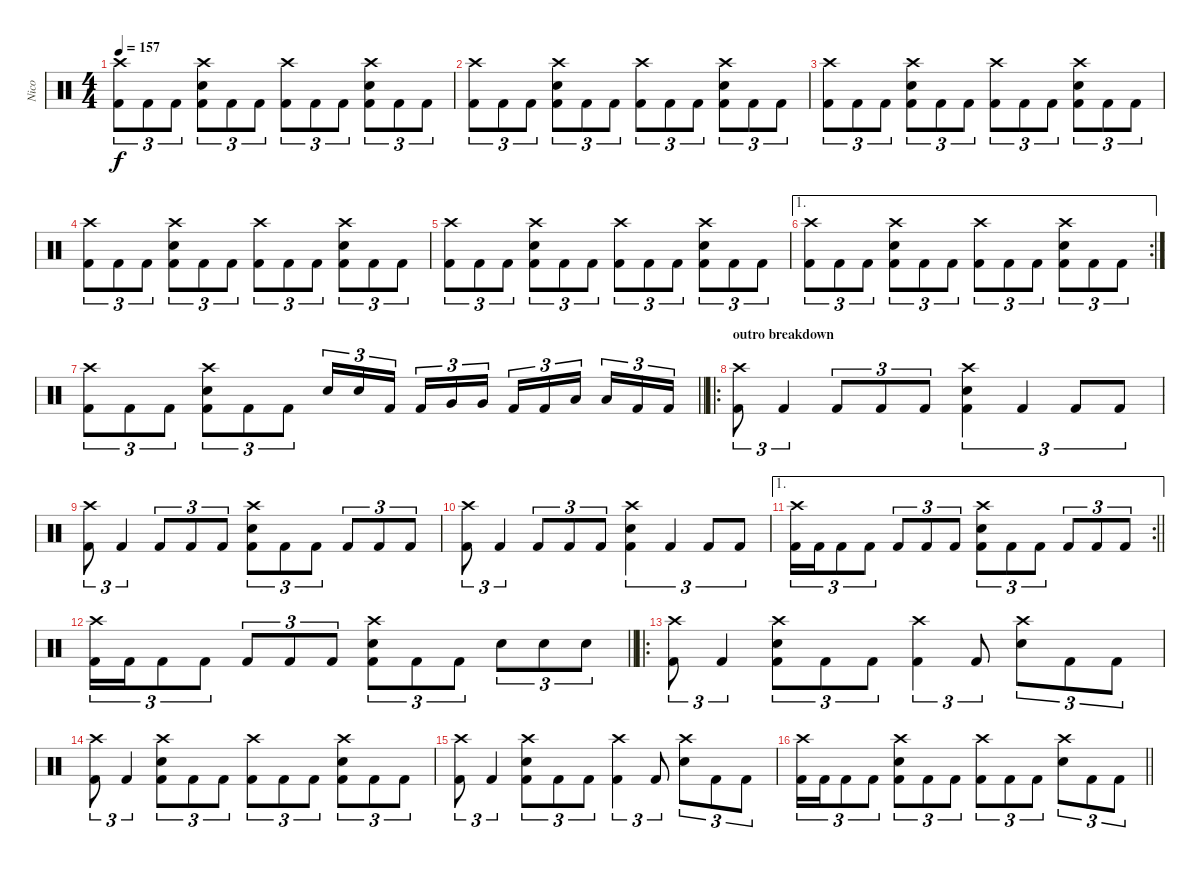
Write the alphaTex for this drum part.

\track ("Nico" "Nico") {instrument percussion}
\staff {score}
\articulation defaults
\ts (4 4)
\tempo 157
\clef neutral
\ks c
("Crash high (hit)" "Kick (hit) 2").8{tu (3 2) dy f} "Kick (hit) 2".8{tu (3 2)} "Kick (hit) 2".8{tu (3 2)} ("Crash high (hit)" "Electric Snare (hit)" "Kick (hit) 2").8{tu (3 2)} "Kick (hit) 2".8{tu (3 2)} "Kick (hit) 2".8{tu (3 2)} ("Crash high (hit)" "Kick (hit) 2").8{tu (3 2)} "Kick (hit) 2".8{tu (3 2)} "Kick (hit) 2".8{tu (3 2)} ("Crash high (hit)" "Electric Snare (hit)" "Kick (hit) 2").8{tu (3 2)} "Kick (hit) 2".8{tu (3 2)} "Kick (hit) 2".8{tu (3 2)} |
("Crash high (hit)" "Kick (hit) 2").8{tu (3 2)} "Kick (hit) 2".8{tu (3 2)} "Kick (hit) 2".8{tu (3 2)} ("Crash high (hit)" "Electric Snare (hit)" "Kick (hit) 2").8{tu (3 2)} "Kick (hit) 2".8{tu (3 2)} "Kick (hit) 2".8{tu (3 2)} ("Crash high (hit)" "Kick (hit) 2").8{tu (3 2)} "Kick (hit) 2".8{tu (3 2)} "Kick (hit) 2".8{tu (3 2)} ("Crash high (hit)" "Electric Snare (hit)" "Kick (hit) 2").8{tu (3 2)} "Kick (hit) 2".8{tu (3 2)} "Kick (hit) 2".8{tu (3 2)} |
("Crash high (hit)" "Kick (hit) 2").8{tu (3 2)} "Kick (hit) 2".8{tu (3 2)} "Kick (hit) 2".8{tu (3 2)} ("Crash high (hit)" "Electric Snare (hit)" "Kick (hit) 2").8{tu (3 2)} "Kick (hit) 2".8{tu (3 2)} "Kick (hit) 2".8{tu (3 2)} ("Crash high (hit)" "Kick (hit) 2").8{tu (3 2)} "Kick (hit) 2".8{tu (3 2)} "Kick (hit) 2".8{tu (3 2)} ("Crash high (hit)" "Electric Snare (hit)" "Kick (hit) 2").8{tu (3 2)} "Kick (hit) 2".8{tu (3 2)} "Kick (hit) 2".8{tu (3 2)} |
("Crash high (hit)" "Kick (hit) 2").8{tu (3 2)} "Kick (hit) 2".8{tu (3 2)} "Kick (hit) 2".8{tu (3 2)} ("Crash high (hit)" "Electric Snare (hit)" "Kick (hit) 2").8{tu (3 2)} "Kick (hit) 2".8{tu (3 2)} "Kick (hit) 2".8{tu (3 2)} ("Crash high (hit)" "Kick (hit) 2").8{tu (3 2)} "Kick (hit) 2".8{tu (3 2)} "Kick (hit) 2".8{tu (3 2)} ("Crash high (hit)" "Electric Snare (hit)" "Kick (hit) 2").8{tu (3 2)} "Kick (hit) 2".8{tu (3 2)} "Kick (hit) 2".8{tu (3 2)} |
("Crash high (hit)" "Kick (hit) 2").8{tu (3 2)} "Kick (hit) 2".8{tu (3 2)} "Kick (hit) 2".8{tu (3 2)} ("Crash high (hit)" "Electric Snare (hit)" "Kick (hit) 2").8{tu (3 2)} "Kick (hit) 2".8{tu (3 2)} "Kick (hit) 2".8{tu (3 2)} ("Crash high (hit)" "Kick (hit) 2").8{tu (3 2)} "Kick (hit) 2".8{tu (3 2)} "Kick (hit) 2".8{tu (3 2)} ("Crash high (hit)" "Electric Snare (hit)" "Kick (hit) 2").8{tu (3 2)} "Kick (hit) 2".8{tu (3 2)} "Kick (hit) 2".8{tu (3 2)} |
\ae 1
\rc 2
("Crash high (hit)" "Kick (hit) 2").8{tu (3 2)} "Kick (hit) 2".8{tu (3 2)} "Kick (hit) 2".8{tu (3 2)} ("Crash high (hit)" "Electric Snare (hit)" "Kick (hit) 2").8{tu (3 2)} "Kick (hit) 2".8{tu (3 2)} "Kick (hit) 2".8{tu (3 2)} ("Crash high (hit)" "Kick (hit) 2").8{tu (3 2)} "Kick (hit) 2".8{tu (3 2)} "Kick (hit) 2".8{tu (3 2)} ("Crash high (hit)" "Electric Snare (hit)" "Kick (hit) 2").8{tu (3 2)} "Kick (hit) 2".8{tu (3 2)} "Kick (hit) 2".8{tu (3 2)} |
\barLineRight lightlight
("Crash high (hit)" "Kick (hit) 2").8{tu (3 2)} "Kick (hit) 2".8{tu (3 2)} "Kick (hit) 2".8{tu (3 2)} ("Crash high (hit)" "Electric Snare (hit)" "Kick (hit) 2").8{tu (3 2)} "Kick (hit) 2".8{tu (3 2)} "Kick (hit) 2".8{tu (3 2)} "Electric Snare (hit)".16{tu (3 2)} "Electric Snare (hit)".16{tu (3 2)} "Kick (hit) 2".16{tu (3 2) beam splitsecondary} "Kick (hit) 2".16{tu (3 2)} "Very Low Tom (hit)".16{tu (3 2)} "Very Low Tom (hit)".16{tu (3 2)} "Kick (hit) 2".16{tu (3 2)} "Kick (hit) 2".16{tu (3 2)} "Low Floor Tom (hit)".16{tu (3 2) beam splitsecondary} "Low Floor Tom (hit)".16{tu (3 2)} "Kick (hit) 2".16{tu (3 2)} "Kick (hit) 2".16{tu (3 2)} |
\ro
\section ("" "outro breakdown")
("Crash high (hit)" "Kick (hit) 2").8{tu (3 2)} "Kick (hit) 2".4{tu (3 2)} "Kick (hit) 2".8{tu (3 2)} "Kick (hit) 2".8{tu (3 2)} "Kick (hit) 2".8{tu (3 2)} ("Crash high (hit)" "Electric Snare (hit)" "Kick (hit) 2").4{tu (3 2)} "Kick (hit) 2".4{tu (3 2)} "Kick (hit) 2".8{tu (3 2)} "Kick (hit) 2".8{tu (3 2)} |
("Crash high (hit)" "Kick (hit) 2").8{tu (3 2)} "Kick (hit) 2".4{tu (3 2)} "Kick (hit) 2".8{tu (3 2)} "Kick (hit) 2".8{tu (3 2)} "Kick (hit) 2".8{tu (3 2)} ("Crash high (hit)" "Electric Snare (hit)" "Kick (hit) 2").8{tu (3 2)} "Kick (hit) 2".8{tu (3 2)} "Kick (hit) 2".8{tu (3 2)} "Kick (hit) 2".8{tu (3 2)} "Kick (hit) 2".8{tu (3 2)} "Kick (hit) 2".8{tu (3 2)} |
("Crash high (hit)" "Kick (hit) 2").8{tu (3 2)} "Kick (hit) 2".4{tu (3 2)} "Kick (hit) 2".8{tu (3 2)} "Kick (hit) 2".8{tu (3 2)} "Kick (hit) 2".8{tu (3 2)} ("Crash high (hit)" "Electric Snare (hit)" "Kick (hit) 2").4{tu (3 2)} "Kick (hit) 2".4{tu (3 2)} "Kick (hit) 2".8{tu (3 2)} "Kick (hit) 2".8{tu (3 2)} |
\ae 1
\rc 2
\barLineRight lightlight
("Crash high (hit)" "Kick (hit) 2").16{tu (3 2)} "Kick (hit) 2".16{tu (3 2)} "Kick (hit) 2".8{tu (3 2)} "Kick (hit) 2".8{tu (3 2)} "Kick (hit) 2".8{tu (3 2)} "Kick (hit) 2".8{tu (3 2)} "Kick (hit) 2".8{tu (3 2)} ("Crash high (hit)" "Electric Snare (hit)" "Kick (hit) 2").8{tu (3 2)} "Kick (hit) 2".8{tu (3 2)} "Kick (hit) 2".8{tu (3 2)} "Kick (hit) 2".8{tu (3 2)} "Kick (hit) 2".8{tu (3 2)} "Kick (hit) 2".8{tu (3 2)} |
\barLineRight lightlight
("Crash high (hit)" "Kick (hit) 2").16{tu (3 2)} "Kick (hit) 2".16{tu (3 2)} "Kick (hit) 2".8{tu (3 2)} "Kick (hit) 2".8{tu (3 2)} "Kick (hit) 2".8{tu (3 2)} "Kick (hit) 2".8{tu (3 2)} "Kick (hit) 2".8{tu (3 2)} ("Crash high (hit)" "Electric Snare (hit)" "Kick (hit) 2").8{tu (3 2)} "Kick (hit) 2".8{tu (3 2)} "Kick (hit) 2".8{tu (3 2)} "Electric Snare (hit)".8{tu (3 2)} "Electric Snare (hit)".8{tu (3 2)} "Electric Snare (hit)".8{tu (3 2)} |
\ro
("Crash high (hit)" "Kick (hit) 2").8{tu (3 2)} "Kick (hit) 2".4{tu (3 2)} ("Crash high (hit)" "Electric Snare (hit)" "Kick (hit) 2").8{tu (3 2)} "Kick (hit) 2".8{tu (3 2)} "Kick (hit) 2".8{tu (3 2)} ("Crash high (hit)" "Kick (hit) 2").4{tu (3 2)} "Kick (hit) 2".8{tu (3 2)} ("Crash high (hit)" "Electric Snare (hit)").8{tu (3 2)} "Kick (hit) 2".8{tu (3 2)} "Kick (hit) 2".8{tu (3 2)} |
("Crash high (hit)" "Kick (hit) 2").8{tu (3 2)} "Kick (hit) 2".4{tu (3 2)} ("Crash high (hit)" "Electric Snare (hit)" "Kick (hit) 2").8{tu (3 2)} "Kick (hit) 2".8{tu (3 2)} "Kick (hit) 2".8{tu (3 2)} ("Crash high (hit)" "Kick (hit) 2").8{tu (3 2)} "Kick (hit) 2".8{tu (3 2)} "Kick (hit) 2".8{tu (3 2)} ("Crash high (hit)" "Electric Snare (hit)" "Kick (hit) 2").8{tu (3 2)} "Kick (hit) 2".8{tu (3 2)} "Kick (hit) 2".8{tu (3 2)} |
("Crash high (hit)" "Kick (hit) 2").8{tu (3 2)} "Kick (hit) 2".4{tu (3 2)} ("Crash high (hit)" "Electric Snare (hit)" "Kick (hit) 2").8{tu (3 2)} "Kick (hit) 2".8{tu (3 2)} "Kick (hit) 2".8{tu (3 2)} ("Crash high (hit)" "Kick (hit) 2").4{tu (3 2)} "Kick (hit) 2".8{tu (3 2)} ("Crash high (hit)" "Electric Snare (hit)").8{tu (3 2)} "Kick (hit) 2".8{tu (3 2)} "Kick (hit) 2".8{tu (3 2)} |
\barLineRight lightlight
("Crash high (hit)" "Kick (hit) 2").16{tu (3 2)} "Kick (hit) 2".16{tu (3 2)} "Kick (hit) 2".8{tu (3 2)} "Kick (hit) 2".8{tu (3 2)} ("Crash high (hit)" "Electric Snare (hit)" "Kick (hit) 2").8{tu (3 2)} "Kick (hit) 2".8{tu (3 2)} "Kick (hit) 2".8{tu (3 2)} ("Crash high (hit)" "Kick (hit) 2").8{tu (3 2)} "Kick (hit) 2".8{tu (3 2)} "Kick (hit) 2".8{tu (3 2)} ("Crash high (hit)" "Electric Snare (hit)").8{tu (3 2)} "Kick (hit) 2".8{tu (3 2)} "Kick (hit) 2".8{tu (3 2)}
